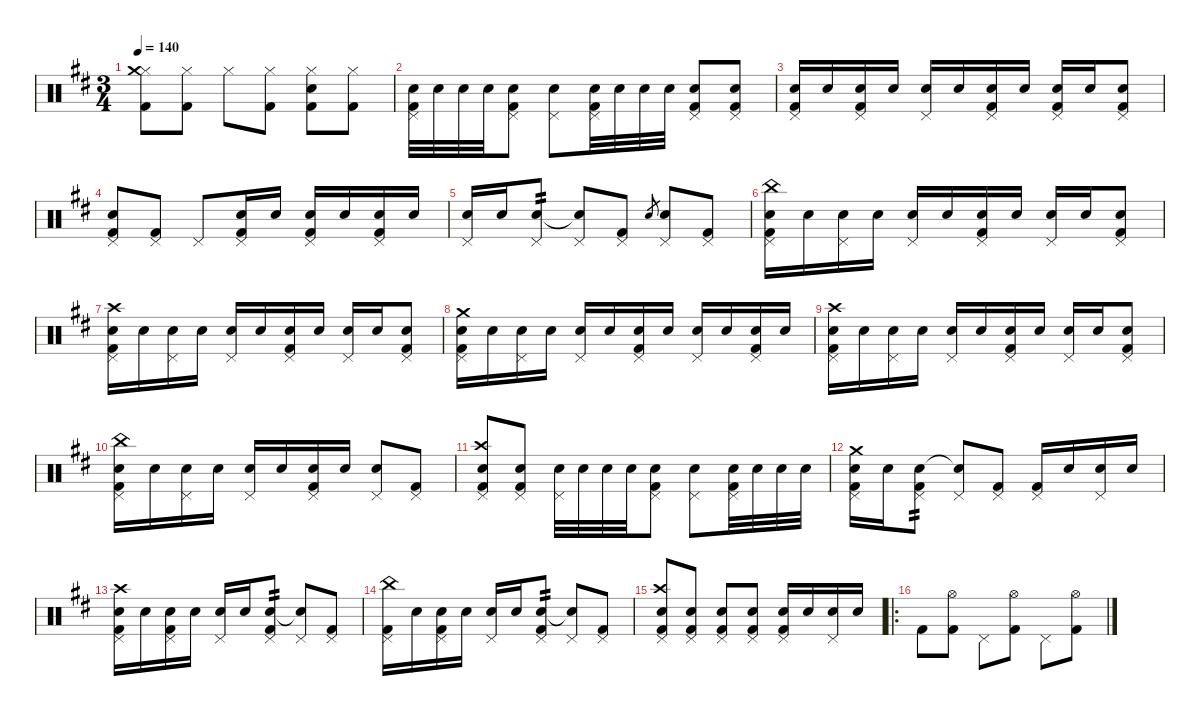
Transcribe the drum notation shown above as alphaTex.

\defaultSystemsLayout 4
\hideDynamics
\bracketExtendMode nobrackets
\singleTrackTrackNamePolicy hidden
\multiTrackTrackNamePolicy hidden
\otherSystemsTrackNameOrientation horizontal
\track ("Percussions" "drm.") {instrument percussion}
\staff {score}
\articulation defaults
\ts (3 4)
\tempo 140
\clef neutral
\ks d
("Hi-Hat (closed)"{acc forcenatural} "Crash medium (hit)"{acc forcenatural} "Kick (hit) 2"{acc forcenatural}).8{dy f beam Down} ("Hi-Hat (closed)"{acc forcenatural} "Kick (hit) 2"{acc forcenatural}).8{beam Down} "Hi-Hat (closed)"{acc forcenatural}.8{beam Down} ("Hi-Hat (closed)"{acc forcenatural} "Kick (hit) 2"{acc forcenatural}).8{beam Down} ("Hi-Hat (closed)"{acc forcenatural} "Snare (hit) 2"{acc forcenatural} "Kick (hit) 2"{acc forcenatural}).8{beam Down} ("Hi-Hat (closed)"{acc forcenatural} "Kick (hit) 2"{acc forcenatural}).8{beam Down} |
("Pedal Hi-Hat (hit)"{acc forcenatural} "Snare (hit) 2"{acc forcenatural} "Kick (hit) 2"{acc forcenatural}).32{beam Down} "Snare (hit) 2"{acc forcenatural}.32{beam Down} "Snare (hit) 2"{acc forcenatural}.32{beam Down} "Snare (hit) 2"{acc forcenatural}.32{beam Down} ("Pedal Hi-Hat (hit)"{acc forcenatural} "Snare (hit) 2"{acc forcenatural} "Kick (hit) 2"{acc forcenatural}).8{beam Down} ("Pedal Hi-Hat (hit)"{acc forcenatural} "Snare (hit) 2"{acc forcenatural}).8{beam Down} ("Pedal Hi-Hat (hit)"{acc forcenatural} "Snare (hit) 2"{acc forcenatural} "Kick (hit) 2"{acc forcenatural}).32{beam Down} "Snare (hit) 2"{acc forcenatural}.32{beam Down} "Snare (hit) 2"{acc forcenatural}.32{beam Down} "Snare (hit) 2"{acc forcenatural}.32{beam Down} ("Pedal Hi-Hat (hit)"{acc forcenatural} "Snare (hit) 2"{acc forcenatural} "Kick (hit) 2"{acc forcenatural}).8{beam Up} ("Pedal Hi-Hat (hit)"{acc forcenatural} "Snare (hit) 2"{acc forcenatural} "Kick (hit) 2"{acc forcenatural}).8{beam Up} |
("Pedal Hi-Hat (hit)"{acc forcenatural} "Snare (hit) 2"{acc forcenatural} "Kick (hit) 2"{acc forcenatural}).16{beam Up} "Snare (hit) 2"{acc forcenatural}.16{beam Up} ("Pedal Hi-Hat (hit)"{acc forcenatural} "Snare (hit) 2"{acc forcenatural} "Kick (hit) 2"{acc forcenatural}).16{beam Up} "Snare (hit) 2"{acc forcenatural}.16{beam Up} ("Pedal Hi-Hat (hit)"{acc forcenatural} "Snare (hit) 2"{acc forcenatural}).16{beam Up} "Snare (hit) 2"{acc forcenatural}.16{beam Up} ("Pedal Hi-Hat (hit)"{acc forcenatural} "Snare (hit) 2"{acc forcenatural} "Kick (hit) 2"{acc forcenatural}).16{beam Up} "Snare (hit) 2"{acc forcenatural}.16{beam Up} ("Pedal Hi-Hat (hit)"{acc forcenatural} "Snare (hit) 2"{acc forcenatural} "Kick (hit) 2"{acc forcenatural}).16{beam Up} "Snare (hit) 2"{acc forcenatural}.16{beam Up} ("Pedal Hi-Hat (hit)"{acc forcenatural} "Snare (hit) 2"{acc forcenatural} "Kick (hit) 2"{acc forcenatural}).8{beam Up} |
("Pedal Hi-Hat (hit)"{acc forcenatural} "Snare (hit) 2"{acc forcenatural} "Kick (hit) 2"{acc forcenatural}).8{beam Up} ("Pedal Hi-Hat (hit)"{acc forcenatural} "Kick (hit) 2"{acc forcenatural}).8{beam Up} "Pedal Hi-Hat (hit)"{acc forcenatural}.8{beam Up} ("Pedal Hi-Hat (hit)"{acc forcenatural} "Snare (hit) 2"{acc forcenatural} "Kick (hit) 2"{acc forcenatural}).16{beam Up} "Snare (hit) 2"{acc forcenatural}.16{beam Up} ("Pedal Hi-Hat (hit)"{acc forcenatural} "Snare (hit) 2"{acc forcenatural} "Kick (hit) 2"{acc forcenatural}).16{beam Up} "Snare (hit) 2"{acc forcenatural}.16{beam Up} ("Pedal Hi-Hat (hit)"{acc forcenatural} "Snare (hit) 2"{acc forcenatural} "Kick (hit) 2"{acc forcenatural}).16{beam Up} "Snare (hit) 2"{acc forcenatural}.16{beam Up} |
("Pedal Hi-Hat (hit)"{acc forcenatural} "Snare (hit) 2"{acc forcenatural}).16{beam Up} "Snare (hit) 2"{acc forcenatural}.16{beam Up} ("Pedal Hi-Hat (hit)"{acc forcenatural} "Snare (hit) 2"{acc forcenatural}).8{tp 2 beam Up} ("Pedal Hi-Hat (hit)"{acc forcenatural} "Snare (hit) 2"{t acc forcenatural}).8{beam Up} ("Pedal Hi-Hat (hit)"{acc forcenatural} "Kick (hit) 2"{acc forcenatural}).8{beam Up} "Snare (hit) 2"{acc forcenatural}.8{gr dy mf beam Up} ("Pedal Hi-Hat (hit)"{acc forcenatural} "Snare (hit) 2"{acc forcenatural}).8{dy f beam Up} ("Pedal Hi-Hat (hit)"{acc forcenatural} "Kick (hit) 2"{acc forcenatural}).8{beam Up} |
("Pedal Hi-Hat (hit)"{acc forcenatural} "China (hit)"{acc forcenatural} "Snare (hit) 2"{acc forcenatural} "Kick (hit) 2"{acc forcenatural}).16{beam Down} "Snare (hit) 2"{acc forcenatural}.16{beam Down} ("Pedal Hi-Hat (hit)"{acc forcenatural} "Snare (hit) 2"{acc forcenatural}).16{beam Down} "Snare (hit) 2"{acc forcenatural}.16{beam Down} ("Pedal Hi-Hat (hit)"{acc forcenatural} "Snare (hit) 2"{acc forcenatural}).16{beam Up} "Snare (hit) 2"{acc forcenatural}.16{beam Up} ("Pedal Hi-Hat (hit)"{acc forcenatural} "Snare (hit) 2"{acc forcenatural} "Kick (hit) 2"{acc forcenatural}).16{beam Up} "Snare (hit) 2"{acc forcenatural}.16{beam Up} ("Pedal Hi-Hat (hit)"{acc forcenatural} "Snare (hit) 2"{acc forcenatural}).16{beam Up} "Snare (hit) 2"{acc forcenatural}.16{beam Up} ("Pedal Hi-Hat (hit)"{acc forcenatural} "Snare (hit) 2"{acc forcenatural} "Kick (hit) 2"{acc forcenatural}).8{beam Up} |
("Pedal Hi-Hat (hit)"{acc forcenatural} "Crash high (hit)"{acc forcenatural} "Snare (hit) 2"{acc forcenatural} "Kick (hit) 2"{acc forcenatural}).16{beam Down} "Snare (hit) 2"{acc forcenatural}.16{beam Down} ("Pedal Hi-Hat (hit)"{acc forcenatural} "Snare (hit) 2"{acc forcenatural}).16{beam Down} "Snare (hit) 2"{acc forcenatural}.16{beam Down} ("Pedal Hi-Hat (hit)"{acc forcenatural} "Snare (hit) 2"{acc forcenatural}).16{beam Up} "Snare (hit) 2"{acc forcenatural}.16{beam Up} ("Pedal Hi-Hat (hit)"{acc forcenatural} "Snare (hit) 2"{acc forcenatural} "Kick (hit) 2"{acc forcenatural}).16{beam Up} "Snare (hit) 2"{acc forcenatural}.16{beam Up} ("Pedal Hi-Hat (hit)"{acc forcenatural} "Snare (hit) 2"{acc forcenatural}).16{beam Up} "Snare (hit) 2"{acc forcenatural}.16{beam Up} ("Pedal Hi-Hat (hit)"{acc forcenatural} "Snare (hit) 2"{acc forcenatural} "Kick (hit) 2"{acc forcenatural}).8{beam Up} |
("Pedal Hi-Hat (hit)"{acc forcenatural} "Crash medium (hit)"{acc forcenatural} "Snare (hit) 2"{acc forcenatural} "Kick (hit) 2"{acc forcenatural}).16{beam Down} "Snare (hit) 2"{acc forcenatural}.16{beam Down} ("Pedal Hi-Hat (hit)"{acc forcenatural} "Snare (hit) 2"{acc forcenatural}).16{beam Down} "Snare (hit) 2"{acc forcenatural}.16{beam Down} ("Pedal Hi-Hat (hit)"{acc forcenatural} "Snare (hit) 2"{acc forcenatural}).16{beam Up} "Snare (hit) 2"{acc forcenatural}.16{beam Up} ("Pedal Hi-Hat (hit)"{acc forcenatural} "Snare (hit) 2"{acc forcenatural} "Kick (hit) 2"{acc forcenatural}).16{beam Up} "Snare (hit) 2"{acc forcenatural}.16{beam Up} ("Pedal Hi-Hat (hit)"{acc forcenatural} "Snare (hit) 2"{acc forcenatural}).16{beam Up} "Snare (hit) 2"{acc forcenatural}.16{beam Up} ("Pedal Hi-Hat (hit)"{acc forcenatural} "Snare (hit) 2"{acc forcenatural} "Kick (hit) 2"{acc forcenatural}).16{beam Up} "Snare (hit) 2"{acc forcenatural}.16{beam Up} |
("Pedal Hi-Hat (hit)"{acc forcenatural} "Crash high (hit)"{acc forcenatural} "Snare (hit) 2"{acc forcenatural} "Kick (hit) 2"{acc forcenatural}).16{beam Down} "Snare (hit) 2"{acc forcenatural}.16{beam Down} ("Pedal Hi-Hat (hit)"{acc forcenatural} "Snare (hit) 2"{acc forcenatural}).16{beam Down} "Snare (hit) 2"{acc forcenatural}.16{beam Down} ("Pedal Hi-Hat (hit)"{acc forcenatural} "Snare (hit) 2"{acc forcenatural}).16{beam Up} "Snare (hit) 2"{acc forcenatural}.16{beam Up} ("Pedal Hi-Hat (hit)"{acc forcenatural} "Snare (hit) 2"{acc forcenatural} "Kick (hit) 2"{acc forcenatural}).16{beam Up} "Snare (hit) 2"{acc forcenatural}.16{beam Up} ("Pedal Hi-Hat (hit)"{acc forcenatural} "Snare (hit) 2"{acc forcenatural}).16{beam Up} "Snare (hit) 2"{acc forcenatural}.16{beam Up} ("Pedal Hi-Hat (hit)"{acc forcenatural} "Snare (hit) 2"{acc forcenatural} "Kick (hit) 2"{acc forcenatural}).8{beam Up} |
("Pedal Hi-Hat (hit)"{acc forcenatural} "China (hit)"{acc forcenatural} "Snare (hit) 2"{acc forcenatural} "Kick (hit) 2"{acc forcenatural}).16{beam Down} "Snare (hit) 2"{acc forcenatural}.16{beam Down} ("Pedal Hi-Hat (hit)"{acc forcenatural} "Snare (hit) 2"{acc forcenatural}).16{beam Down} "Snare (hit) 2"{acc forcenatural}.16{beam Down} ("Pedal Hi-Hat (hit)"{acc forcenatural} "Snare (hit) 2"{acc forcenatural}).16{beam Up} "Snare (hit) 2"{acc forcenatural}.16{beam Up} ("Pedal Hi-Hat (hit)"{acc forcenatural} "Snare (hit) 2"{acc forcenatural} "Kick (hit) 2"{acc forcenatural}).16{beam Up} "Snare (hit) 2"{acc forcenatural}.16{beam Up} ("Pedal Hi-Hat (hit)"{acc forcenatural} "Snare (hit) 2"{acc forcenatural}).8{beam Up} ("Pedal Hi-Hat (hit)"{acc forcenatural} "Kick (hit) 2"{acc forcenatural}).8{beam Up} |
("Pedal Hi-Hat (hit)"{acc forcenatural} "Crash high (hit)"{acc forcenatural} "Snare (hit) 2"{acc forcenatural} "Kick (hit) 2"{acc forcenatural}).8{beam Up} ("Pedal Hi-Hat (hit)"{acc forcenatural} "Snare (hit) 2"{acc forcenatural} "Kick (hit) 2"{acc forcenatural}).8{beam Up} ("Pedal Hi-Hat (hit)"{acc forcenatural} "Snare (hit) 2"{acc forcenatural}).32{beam Down} "Snare (hit) 2"{acc forcenatural}.32{beam Down} "Snare (hit) 2"{acc forcenatural}.32{beam Down} "Snare (hit) 2"{acc forcenatural}.32{beam Down} ("Pedal Hi-Hat (hit)"{acc forcenatural} "Snare (hit) 2"{acc forcenatural} "Kick (hit) 2"{acc forcenatural}).8{beam Down} ("Pedal Hi-Hat (hit)"{acc forcenatural} "Snare (hit) 2"{acc forcenatural}).8{beam Down} ("Pedal Hi-Hat (hit)"{acc forcenatural} "Snare (hit) 2"{acc forcenatural} "Kick (hit) 2"{acc forcenatural}).32{beam Down} "Snare (hit) 2"{acc forcenatural}.32{beam Down} "Snare (hit) 2"{acc forcenatural}.32{beam Down} "Snare (hit) 2"{acc forcenatural}.32{beam Down} |
("Pedal Hi-Hat (hit)"{acc forcenatural} "Crash medium (hit)"{acc forcenatural} "Snare (hit) 2"{acc forcenatural} "Kick (hit) 2"{acc forcenatural}).16{beam Down} "Snare (hit) 2"{acc forcenatural}.16{beam Down} ("Pedal Hi-Hat (hit)"{acc forcenatural} "Snare (hit) 2"{acc forcenatural} "Kick (hit) 2"{acc forcenatural}).8{tp 2 beam Down} ("Pedal Hi-Hat (hit)"{acc forcenatural} "Snare (hit) 2"{t acc forcenatural}).8{beam Up} ("Pedal Hi-Hat (hit)"{acc forcenatural} "Kick (hit) 2"{acc forcenatural}).8{beam Up} ("Pedal Hi-Hat (hit)"{acc forcenatural} "Kick (hit) 2"{acc forcenatural}).16{beam Up} "Snare (hit) 2"{acc forcenatural}.16{beam Up} ("Pedal Hi-Hat (hit)"{acc forcenatural} "Snare (hit) 2"{acc forcenatural}).16{beam Up} "Snare (hit) 2"{acc forcenatural}.16{beam Up} |
("Pedal Hi-Hat (hit)"{acc forcenatural} "Crash high (hit)"{acc forcenatural} "Snare (hit) 2"{acc forcenatural} "Kick (hit) 2"{acc forcenatural}).16{beam Down} "Snare (hit) 2"{acc forcenatural}.16{beam Down} ("Pedal Hi-Hat (hit)"{acc forcenatural} "Snare (hit) 2"{acc forcenatural} "Kick (hit) 2"{acc forcenatural}).16{beam Down} "Snare (hit) 2"{acc forcenatural}.16{beam Down} ("Pedal Hi-Hat (hit)"{acc forcenatural} "Snare (hit) 2"{acc forcenatural}).16{beam Up} "Snare (hit) 2"{acc forcenatural}.16{beam Up} ("Pedal Hi-Hat (hit)"{acc forcenatural} "Snare (hit) 2"{acc forcenatural} "Kick (hit) 2"{acc forcenatural}).8{tp 2 beam Up} ("Pedal Hi-Hat (hit)"{acc forcenatural} "Snare (hit) 2"{t acc forcenatural}).8{beam Up} ("Pedal Hi-Hat (hit)"{acc forcenatural} "Kick (hit) 2"{acc forcenatural}).8{beam Up} |
("Pedal Hi-Hat (hit)"{acc forcenatural} "China (hit)"{acc forcenatural} "Kick (hit) 2"{acc forcenatural}).16{beam Down} "Snare (hit) 2"{acc forcenatural}.16{beam Down} ("Pedal Hi-Hat (hit)"{acc forcenatural} "Snare (hit) 2"{acc forcenatural} "Kick (hit) 2"{acc forcenatural}).16{beam Down} "Snare (hit) 2"{acc forcenatural}.16{beam Down} ("Pedal Hi-Hat (hit)"{acc forcenatural} "Snare (hit) 2"{acc forcenatural}).16{beam Up} "Snare (hit) 2"{acc forcenatural}.16{beam Up} ("Pedal Hi-Hat (hit)"{acc forcenatural} "Snare (hit) 2"{acc forcenatural} "Kick (hit) 2"{acc forcenatural}).8{tp 2 beam Up} ("Pedal Hi-Hat (hit)"{acc forcenatural} "Snare (hit) 2"{t acc forcenatural}).8{beam Up} ("Pedal Hi-Hat (hit)"{acc forcenatural} "Kick (hit) 2"{acc forcenatural}).8{beam Up} |
("Pedal Hi-Hat (hit)"{acc forcenatural} "Crash high (hit)"{acc forcenatural} "Snare (hit) 2"{acc forcenatural} "Kick (hit) 2"{acc forcenatural}).8{beam Up} ("Pedal Hi-Hat (hit)"{acc forcenatural} "Snare (hit) 2"{acc forcenatural} "Kick (hit) 2"{acc forcenatural}).8{beam Up} ("Pedal Hi-Hat (hit)"{acc forcenatural} "Snare (hit) 2"{acc forcenatural} "Kick (hit) 2"{acc forcenatural}).8{beam Up} ("Pedal Hi-Hat (hit)"{acc forcenatural} "Snare (hit) 2"{acc forcenatural} "Kick (hit) 2"{acc forcenatural}).8{beam Up} ("Pedal Hi-Hat (hit)"{acc forcenatural} "Snare (hit) 2"{acc forcenatural} "Kick (hit) 2"{acc forcenatural}).16{beam Up} "Snare (hit) 2"{acc forcenatural}.16{beam Up} ("Pedal Hi-Hat (hit)"{acc forcenatural} "Snare (hit) 2"{acc forcenatural}).16{beam Up} "Snare (hit) 2"{acc forcenatural}.16{beam Up} |
\ro "Kick (hit) 2"{acc forcenatural}.8{beam Down}
("Hi-Hat (open)"{acc forcenatural} "Kick (hit) 2"{acc forcenatural}).8{beam Down} "Pedal Hi-Hat (hit)"{acc forcenatural}.8{beam Down} ("Hi-Hat (open)"{acc forcenatural} "Kick (hit) 2"{acc forcenatural}).8{beam Down} "Pedal Hi-Hat (hit)"{acc forcenatural}.8{beam Down} ("Hi-Hat (open)"{acc forcenatural} "Kick (hit) 2"{acc forcenatural}).8{beam Down}
